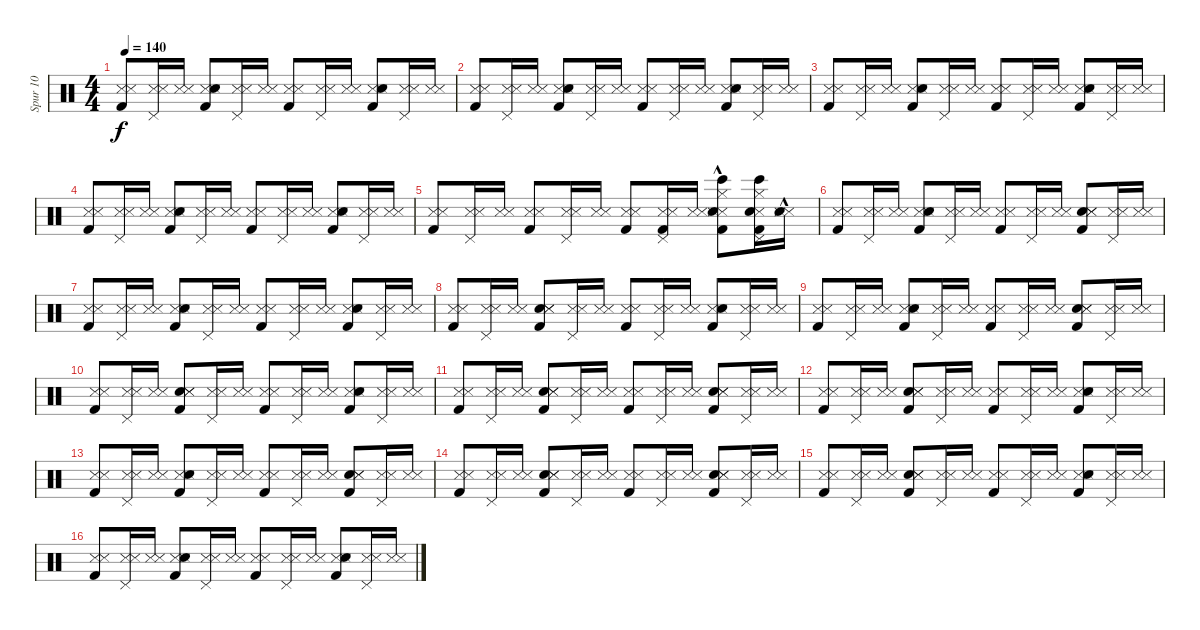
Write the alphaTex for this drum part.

\track ("Spur 10" "Spur 10") {instrument percussion}
\staff {score}
\articulation defaults
\ts (4 4)
\tempo 140
\clef neutral
\ks c
("Kick (hit) 2" "Snare (side stick) 3" "Metronome (hit)").8{dy f} ("Snare (side stick) 3" "Pedal Hi-Hat (hit)" "Metronome (hit)").16 ("Snare (side stick) 3" "Metronome (hit)").16 ("Kick (hit) 2" "Snare (side stick) 3" "Snare (hit) 2" "Metronome (hit)").8 ("Snare (side stick) 3" "Pedal Hi-Hat (hit)" "Metronome (hit)").16 ("Snare (side stick) 3" "Metronome (hit)").16 ("Kick (hit) 2" "Snare (side stick) 3" "Metronome (hit)").8 ("Pedal Hi-Hat (hit)" "Snare (side stick) 3" "Metronome (hit)").16 ("Snare (side stick) 3" "Metronome (hit)").16 ("Snare (side stick) 3" "Kick (hit) 2" "Snare (hit) 2" "Metronome (hit)").8 ("Pedal Hi-Hat (hit)" "Snare (side stick) 3" "Metronome (hit)").16 ("Snare (side stick) 3" "Metronome (hit)").16 |
("Kick (hit) 2" "Snare (side stick) 3" "Metronome (hit)").8 ("Pedal Hi-Hat (hit)" "Snare (side stick) 3" "Metronome (hit)").16 ("Snare (side stick) 3" "Metronome (hit)").16 ("Snare (side stick) 3" "Snare (hit) 2" "Kick (hit) 2" "Metronome (hit)").8 ("Snare (side stick) 3" "Pedal Hi-Hat (hit)" "Metronome (hit)").16 ("Snare (side stick) 3" "Metronome (hit)").16 ("Kick (hit) 2" "Snare (side stick) 3" "Metronome (hit)").8 ("Pedal Hi-Hat (hit)" "Snare (side stick) 3" "Metronome (hit)").16 ("Snare (side stick) 3" "Metronome (hit)").16 ("Snare (side stick) 3" "Kick (hit) 2" "Snare (hit) 2" "Metronome (hit)").8 ("Pedal Hi-Hat (hit)" "Snare (side stick) 3" "Metronome (hit)").16 ("Snare (side stick) 3" "Metronome (hit)").16 |
("Snare (side stick) 3" "Kick (hit) 2" "Metronome (hit)").8 ("Pedal Hi-Hat (hit)" "Snare (side stick) 3" "Metronome (hit)").16 ("Snare (side stick) 3" "Metronome (hit)").16 ("Kick (hit) 2" "Snare (side stick) 3" "Snare (hit) 2" "Metronome (hit)").8 ("Pedal Hi-Hat (hit)" "Snare (side stick) 3" "Metronome (hit)").16 ("Snare (side stick) 3" "Metronome (hit)").16 ("Kick (hit) 2" "Snare (side stick) 3" "Metronome (hit)").8 ("Pedal Hi-Hat (hit)" "Snare (side stick) 3" "Metronome (hit)").16 ("Snare (side stick) 3" "Metronome (hit)").16 ("Snare (side stick) 3" "Kick (hit) 2" "Snare (hit) 2" "Metronome (hit)").8 ("Pedal Hi-Hat (hit)" "Snare (side stick) 3" "Metronome (hit)").16 ("Snare (side stick) 3" "Metronome (hit)").16 |
("Snare (side stick) 3" "Kick (hit) 2" "Metronome (hit)").8 ("Snare (side stick) 3" "Pedal Hi-Hat (hit)" "Metronome (hit)").16 ("Snare (side stick) 3" "Metronome (hit)").16 ("Kick (hit) 2" "Snare (side stick) 3" "Snare (hit) 2" "Metronome (hit)").8 ("Snare (side stick) 3" "Pedal Hi-Hat (hit)" "Metronome (hit)").16 ("Snare (side stick) 3" "Metronome (hit)").16 ("Snare (side stick) 3" "Kick (hit) 2" "Metronome (hit)").8 ("Pedal Hi-Hat (hit)" "Snare (side stick) 3" "Metronome (hit)").16 ("Snare (side stick) 3" "Metronome (hit)").16 ("Kick (hit) 2" "Snare (side stick) 3" "Snare (hit) 2" "Metronome (hit)").8 ("Pedal Hi-Hat (hit)" "Snare (side stick) 3" "Metronome (hit)").16 ("Snare (side stick) 3" "Metronome (hit)").16 |
("Kick (hit) 2" "Snare (side stick) 3" "Metronome (hit)").8 ("Pedal Hi-Hat (hit)" "Snare (side stick) 3" "Metronome (hit)").16 ("Snare (side stick) 3" "Metronome (hit)").16 ("Kick (hit) 2" "Snare (side stick) 3" "Metronome (hit)").8 ("Snare (side stick) 3" "Pedal Hi-Hat (hit)" "Metronome (hit)").16 ("Snare (side stick) 3" "Metronome (hit)").16 ("Kick (hit) 2" "Snare (side stick) 3" "Metronome (hit)").8 ("Kick (hit) 2" "Snare (side stick) 3" "Pedal Hi-Hat (hit)" "Metronome (hit)").16 ("Snare (side stick) 3" "Metronome (hit)").16 ("Bongo High (hit)" "Kick (hit) 2" "Hi-Hat (closed)" "Snare (side stick) 3" "Snare (hit) 2" "Metronome (hit)"{hac}).8 ("Kick (hit) 2" "Snare (side stick) 3" "Pedal Hi-Hat (hit)" "Bongo High (hit)" "Hi-Hat (closed)" "Snare (hit) 2").16 ("Snare (side stick) 3" "Snare (hit) 2"{hac} "Metronome (hit)").16 |
("Kick (hit) 2" "Snare (side stick) 3" "Metronome (hit)").8 ("Snare (side stick) 3" "Pedal Hi-Hat (hit)" "Metronome (hit)").16 ("Snare (side stick) 3" "Metronome (hit)").16 ("Snare (side stick) 3" "Kick (hit) 2" "Snare (hit) 2" "Metronome (hit)").8 ("Pedal Hi-Hat (hit)" "Snare (side stick) 3" "Metronome (hit)").16 ("Snare (side stick) 3" "Metronome (hit)").16 ("Snare (side stick) 3" "Kick (hit) 2" "Metronome (hit)").8 ("Snare (side stick) 3" "Pedal Hi-Hat (hit)" "Metronome (hit)").16 ("Snare (side stick) 3" "Metronome (hit)").16 ("Kick (hit) 2" "Snare (hit) 2" "Snare (side stick) 3" "Metronome (hit)").8 ("Pedal Hi-Hat (hit)" "Snare (side stick) 3" "Metronome (hit)").16 ("Snare (side stick) 3" "Metronome (hit)").16 |
("Kick (hit) 2" "Snare (side stick) 3" "Metronome (hit)").8 ("Snare (side stick) 3" "Pedal Hi-Hat (hit)" "Metronome (hit)").16 ("Snare (side stick) 3" "Metronome (hit)").16 ("Snare (side stick) 3" "Snare (hit) 2" "Kick (hit) 2" "Metronome (hit)").8 ("Pedal Hi-Hat (hit)" "Snare (side stick) 3" "Metronome (hit)").16 ("Snare (side stick) 3" "Metronome (hit)").16 ("Snare (side stick) 3" "Kick (hit) 2" "Metronome (hit)").8 ("Pedal Hi-Hat (hit)" "Snare (side stick) 3" "Metronome (hit)").16 ("Snare (side stick) 3" "Metronome (hit)").16 ("Snare (side stick) 3" "Snare (hit) 2" "Kick (hit) 2" "Metronome (hit)").8 ("Pedal Hi-Hat (hit)" "Snare (side stick) 3" "Metronome (hit)").16 ("Snare (side stick) 3" "Metronome (hit)").16 |
("Snare (side stick) 3" "Kick (hit) 2" "Metronome (hit)").8 ("Snare (side stick) 3" "Pedal Hi-Hat (hit)" "Metronome (hit)").16 ("Snare (side stick) 3" "Metronome (hit)").16 ("Kick (hit) 2" "Snare (hit) 2" "Snare (side stick) 3" "Metronome (hit)").8 ("Pedal Hi-Hat (hit)" "Snare (side stick) 3" "Metronome (hit)").16 ("Snare (side stick) 3" "Metronome (hit)").16 ("Snare (side stick) 3" "Kick (hit) 2" "Metronome (hit)").8 ("Pedal Hi-Hat (hit)" "Snare (side stick) 3" "Metronome (hit)").16 ("Snare (side stick) 3" "Metronome (hit)").16 ("Kick (hit) 2" "Snare (side stick) 3" "Snare (hit) 2" "Metronome (hit)").8 ("Snare (side stick) 3" "Pedal Hi-Hat (hit)" "Metronome (hit)").16 ("Snare (side stick) 3" "Metronome (hit)").16 |
("Kick (hit) 2" "Snare (side stick) 3" "Metronome (hit)").8 ("Snare (side stick) 3" "Pedal Hi-Hat (hit)" "Metronome (hit)").16 ("Snare (side stick) 3" "Metronome (hit)").16 ("Kick (hit) 2" "Snare (side stick) 3" "Snare (hit) 2" "Metronome (hit)").8 ("Snare (side stick) 3" "Pedal Hi-Hat (hit)" "Metronome (hit)").16 ("Snare (side stick) 3" "Metronome (hit)").16 ("Kick (hit) 2" "Snare (side stick) 3" "Metronome (hit)").8 ("Pedal Hi-Hat (hit)" "Snare (side stick) 3" "Metronome (hit)").16 ("Snare (side stick) 3" "Metronome (hit)").16 ("Kick (hit) 2" "Snare (hit) 2" "Snare (side stick) 3" "Metronome (hit)").8 ("Snare (side stick) 3" "Pedal Hi-Hat (hit)" "Metronome (hit)").16 ("Snare (side stick) 3" "Metronome (hit)").16 |
("Kick (hit) 2" "Snare (side stick) 3" "Metronome (hit)").8 ("Pedal Hi-Hat (hit)" "Snare (side stick) 3" "Metronome (hit)").16 ("Snare (side stick) 3" "Metronome (hit)").16 ("Snare (hit) 2" "Kick (hit) 2" "Snare (side stick) 3" "Metronome (hit)").8 ("Pedal Hi-Hat (hit)" "Snare (side stick) 3" "Metronome (hit)").16 ("Snare (side stick) 3" "Metronome (hit)").16 ("Snare (side stick) 3" "Kick (hit) 2" "Metronome (hit)").8 ("Pedal Hi-Hat (hit)" "Snare (side stick) 3" "Metronome (hit)").16 ("Snare (side stick) 3" "Metronome (hit)").16 ("Kick (hit) 2" "Snare (side stick) 3" "Snare (hit) 2" "Metronome (hit)").8 ("Snare (side stick) 3" "Pedal Hi-Hat (hit)" "Metronome (hit)").16 ("Snare (side stick) 3" "Metronome (hit)").16 |
("Snare (side stick) 3" "Kick (hit) 2" "Metronome (hit)").8 ("Snare (side stick) 3" "Pedal Hi-Hat (hit)" "Metronome (hit)").16 ("Snare (side stick) 3" "Metronome (hit)").16 ("Kick (hit) 2" "Snare (hit) 2" "Snare (side stick) 3" "Metronome (hit)").8 ("Pedal Hi-Hat (hit)" "Snare (side stick) 3" "Metronome (hit)").16 ("Snare (side stick) 3" "Metronome (hit)").16 ("Kick (hit) 2" "Snare (side stick) 3" "Metronome (hit)").8 ("Pedal Hi-Hat (hit)" "Snare (side stick) 3" "Metronome (hit)").16 ("Snare (side stick) 3" "Metronome (hit)").16 ("Kick (hit) 2" "Snare (hit) 2" "Snare (side stick) 3" "Metronome (hit)").8 ("Snare (side stick) 3" "Pedal Hi-Hat (hit)" "Metronome (hit)").16 ("Snare (side stick) 3" "Metronome (hit)").16 |
("Snare (side stick) 3" "Kick (hit) 2" "Metronome (hit)").8 ("Snare (side stick) 3" "Pedal Hi-Hat (hit)" "Metronome (hit)").16 ("Snare (side stick) 3" "Metronome (hit)").16 ("Kick (hit) 2" "Snare (hit) 2" "Snare (side stick) 3" "Metronome (hit)").8 ("Snare (side stick) 3" "Pedal Hi-Hat (hit)" "Metronome (hit)").16 ("Snare (side stick) 3" "Metronome (hit)").16 ("Kick (hit) 2" "Snare (side stick) 3" "Metronome (hit)").8 ("Pedal Hi-Hat (hit)" "Snare (side stick) 3" "Metronome (hit)").16 ("Snare (side stick) 3" "Metronome (hit)").16 ("Snare (side stick) 3" "Snare (hit) 2" "Kick (hit) 2" "Metronome (hit)").8 ("Pedal Hi-Hat (hit)" "Snare (side stick) 3" "Metronome (hit)").16 ("Snare (side stick) 3" "Metronome (hit)").16 |
("Snare (side stick) 3" "Kick (hit) 2" "Metronome (hit)").8 ("Snare (side stick) 3" "Pedal Hi-Hat (hit)" "Metronome (hit)").16 ("Snare (side stick) 3" "Metronome (hit)").16 ("Kick (hit) 2" "Snare (side stick) 3" "Snare (hit) 2" "Metronome (hit)").8 ("Snare (side stick) 3" "Pedal Hi-Hat (hit)" "Metronome (hit)").16 ("Snare (side stick) 3" "Metronome (hit)").16 ("Kick (hit) 2" "Snare (side stick) 3" "Metronome (hit)").8 ("Pedal Hi-Hat (hit)" "Snare (side stick) 3" "Metronome (hit)").16 ("Snare (side stick) 3" "Metronome (hit)").16 ("Kick (hit) 2" "Snare (hit) 2" "Snare (side stick) 3" "Metronome (hit)").8 ("Pedal Hi-Hat (hit)" "Snare (side stick) 3" "Metronome (hit)").16 ("Snare (side stick) 3" "Metronome (hit)").16 |
("Kick (hit) 2" "Snare (side stick) 3" "Metronome (hit)").8 ("Pedal Hi-Hat (hit)" "Snare (side stick) 3" "Metronome (hit)").16 ("Snare (side stick) 3" "Metronome (hit)").16 ("Snare (hit) 2" "Kick (hit) 2" "Snare (side stick) 3" "Metronome (hit)").8 ("Snare (side stick) 3" "Pedal Hi-Hat (hit)" "Metronome (hit)").16 ("Snare (side stick) 3" "Metronome (hit)").16 ("Kick (hit) 2" "Snare (side stick) 3" "Metronome (hit)").8 ("Pedal Hi-Hat (hit)" "Snare (side stick) 3" "Metronome (hit)").16 ("Snare (side stick) 3" "Metronome (hit)").16 ("Snare (hit) 2" "Kick (hit) 2" "Snare (side stick) 3" "Metronome (hit)").8 ("Pedal Hi-Hat (hit)" "Snare (side stick) 3" "Metronome (hit)").16 ("Snare (side stick) 3" "Metronome (hit)").16 |
("Snare (side stick) 3" "Kick (hit) 2" "Metronome (hit)").8 ("Snare (side stick) 3" "Pedal Hi-Hat (hit)" "Metronome (hit)").16 ("Snare (side stick) 3" "Metronome (hit)").16 ("Kick (hit) 2" "Snare (hit) 2" "Snare (side stick) 3" "Metronome (hit)").8 ("Snare (side stick) 3" "Pedal Hi-Hat (hit)" "Metronome (hit)").16 ("Snare (side stick) 3" "Metronome (hit)").16 ("Kick (hit) 2" "Snare (side stick) 3" "Metronome (hit)").8 ("Pedal Hi-Hat (hit)" "Snare (side stick) 3" "Metronome (hit)").16 ("Snare (side stick) 3" "Metronome (hit)").16 ("Snare (side stick) 3" "Kick (hit) 2" "Snare (hit) 2" "Metronome (hit)").8 ("Pedal Hi-Hat (hit)" "Snare (side stick) 3" "Metronome (hit)").16 ("Snare (side stick) 3" "Metronome (hit)").16 |
("Snare (side stick) 3" "Kick (hit) 2" "Metronome (hit)").8 ("Pedal Hi-Hat (hit)" "Snare (side stick) 3" "Metronome (hit)").16 ("Snare (side stick) 3" "Metronome (hit)").16 ("Kick (hit) 2" "Snare (side stick) 3" "Snare (hit) 2" "Metronome (hit)").8 ("Pedal Hi-Hat (hit)" "Snare (side stick) 3" "Metronome (hit)").16 ("Snare (side stick) 3" "Metronome (hit)").16 ("Kick (hit) 2" "Snare (side stick) 3" "Metronome (hit)").8 ("Pedal Hi-Hat (hit)" "Snare (side stick) 3" "Metronome (hit)").16 ("Snare (side stick) 3" "Metronome (hit)").16 ("Kick (hit) 2" "Snare (side stick) 3" "Snare (hit) 2" "Metronome (hit)").8 ("Pedal Hi-Hat (hit)" "Snare (side stick) 3" "Metronome (hit)").16 ("Snare (side stick) 3" "Metronome (hit)").16
